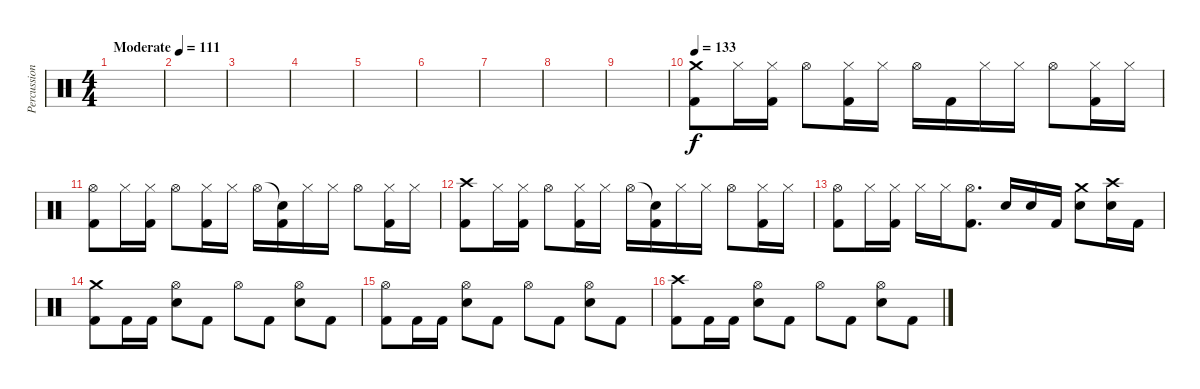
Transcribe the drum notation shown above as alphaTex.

\track ("Percussion" "Percussion") {instrument percussion}
\staff {score}
\articulation defaults
\ts (4 4)
\tempo (111 "Moderate")
\clef neutral
\ks c
|
|
|
|
|
|
|
|
|
\tempo 133
("Crash medium (hit)" "Kick (hit) 2").8 "Hi-Hat (closed)".16 ("Hi-Hat (closed)" "Kick (hit) 2").16 "Hi-Hat (open)".8 ("Hi-Hat (closed)" "Kick (hit) 2").16 "Hi-Hat (closed)".16 "Hi-Hat (open)".16 "Kick (hit) 2".16 "Hi-Hat (closed)".16 "Hi-Hat (closed)".16 "Hi-Hat (open)".8 ("Hi-Hat (closed)" "Kick (hit) 2").16 "Hi-Hat (closed)".16 |
("Hi-Hat (open)" "Kick (hit) 2").8 "Hi-Hat (closed)".16 ("Hi-Hat (closed)" "Kick (hit) 2").16 "Hi-Hat (open)".8 ("Hi-Hat (closed)" "Kick (hit) 2").16 "Hi-Hat (closed)".16 "Hi-Hat (open)".16 ("Snare (hit)"{t} "Kick (hit) 2").16 "Hi-Hat (closed)".16 "Hi-Hat (closed)".16 "Hi-Hat (open)".8 ("Hi-Hat (closed)" "Kick (hit) 2").16 "Hi-Hat (closed)".16 |
("Crash high (hit)" "Kick (hit) 2").8 "Hi-Hat (closed)".16 ("Hi-Hat (closed)" "Kick (hit) 2").16 "Hi-Hat (open)".8 ("Hi-Hat (closed)" "Kick (hit) 2").16 "Hi-Hat (closed)".16 "Hi-Hat (open)".16 ("Snare (hit)"{t} "Kick (hit) 2").16 "Hi-Hat (closed)".16 "Hi-Hat (closed)".16 "Hi-Hat (open)".8 ("Hi-Hat (closed)" "Kick (hit) 2").16 "Hi-Hat (closed)".16 |
("Hi-Hat (open)" "Kick (hit) 2").8 "Hi-Hat (closed)".16 ("Hi-Hat (closed)" "Kick (hit) 2").16 "Hi-Hat (closed)".16 "Hi-Hat (closed)".16 ("Hi-Hat (open)" "Kick (hit) 2").8{d} "Electric Snare (hit)".16 "Electric Snare (hit)".16 "Kick (hit) 2".16 ("Crash medium (hit)" "Electric Snare (hit)").8 ("Crash high (hit)" "Electric Snare (hit)").16 "Kick (hit) 2".16 |
("Crash medium (hit)" "Kick (hit) 2").8 "Kick (hit) 2".16 "Kick (hit) 2".16 ("Hi-Hat (open)" "Electric Snare (hit)").8 "Kick (hit) 2".8 "Hi-Hat (open)".8 "Kick (hit) 2".8 ("Hi-Hat (open)" "Electric Snare (hit)").8 "Kick (hit) 2".8 |
("Hi-Hat (open)" "Kick (hit) 2").8 "Kick (hit) 2".16 "Kick (hit) 2".16 ("Hi-Hat (open)" "Electric Snare (hit)").8 "Kick (hit) 2".8 "Hi-Hat (open)".8 "Kick (hit) 2".8 ("Hi-Hat (open)" "Electric Snare (hit)").8 "Kick (hit) 2".8 |
("Crash high (hit)" "Kick (hit) 2").8 "Kick (hit) 2".16 "Kick (hit) 2".16 ("Hi-Hat (open)" "Electric Snare (hit)").8 "Kick (hit) 2".8 "Hi-Hat (open)".8 "Kick (hit) 2".8 ("Hi-Hat (open)" "Electric Snare (hit)").8 "Kick (hit) 2".8
